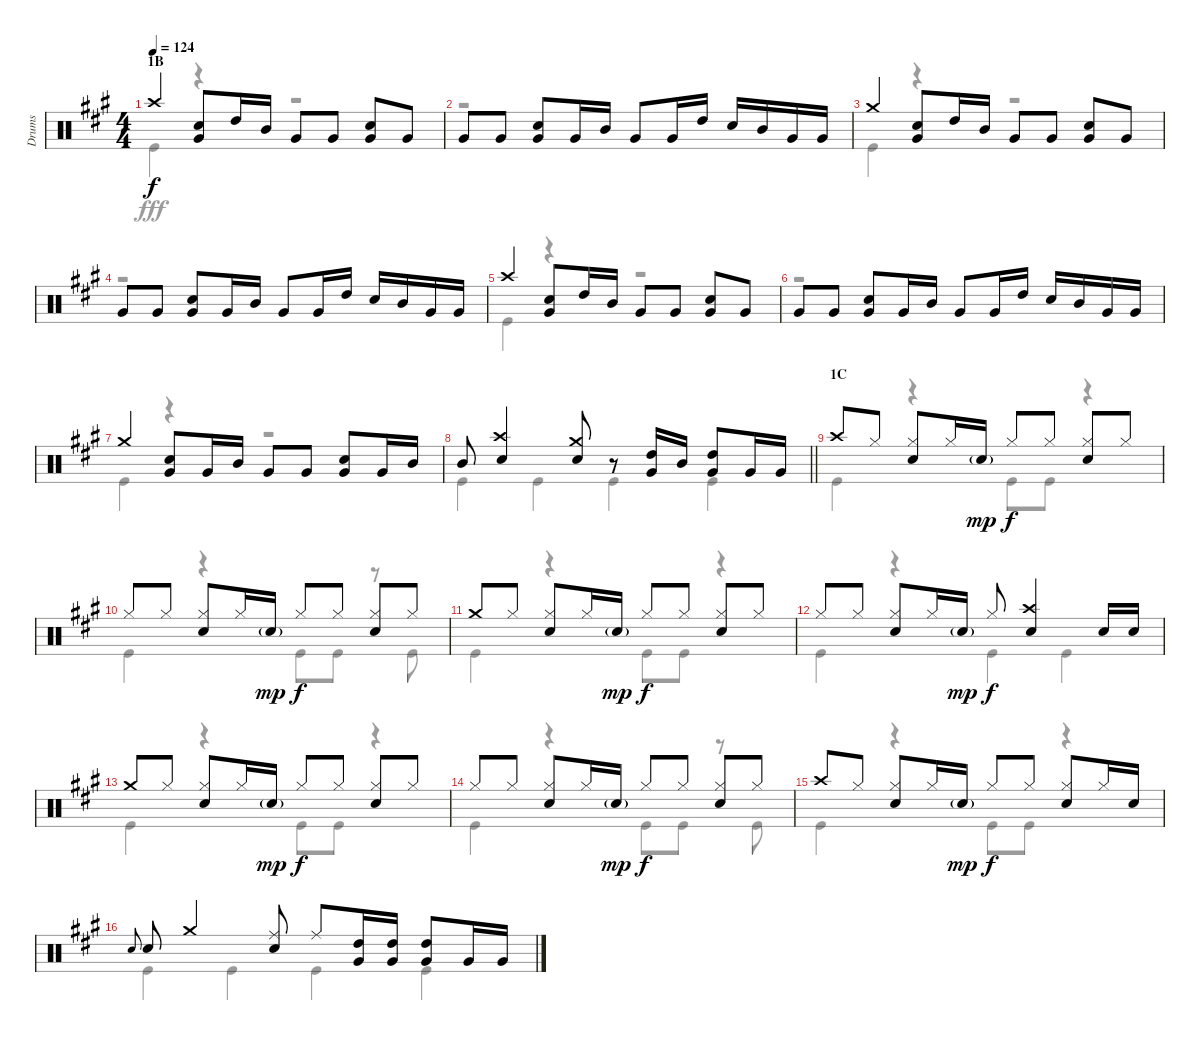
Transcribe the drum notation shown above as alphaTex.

\track ("Drums" "Drums") {instrument percussion}
\staff {score}
\articulation defaults
\voice
\ts (4 4)
\section ("" "1B")
\tempo 124
\clef neutral
\ks a "Crash high (hit)".4{dy f}
("Snare (hit) 2" "Very Low Tom (hit)").8 "High Tom (hit)".16 "Mid Tom (hit)".16 "Very Low Tom (hit)".8 "Very Low Tom (hit)".8 ("Very Low Tom (hit)" "Snare (hit) 2").8 "Very Low Tom (hit)".8 |
"Very Low Tom (hit)".8 "Very Low Tom (hit)".8 ("Snare (hit) 2" "Very Low Tom (hit)").8 "Very Low Tom (hit)".16 "Mid Tom (hit)".16 "Very Low Tom (hit)".8 "Very Low Tom (hit)".16 "High Tom (hit)".16 "Snare (hit) 2".16 "Mid Tom (hit)".16 "Very Low Tom (hit)".16 "Very Low Tom (hit)".16 |
"Crash medium (hit)".4 ("Snare (hit) 2" "Very Low Tom (hit)").8 "High Tom (hit)".16 "Mid Tom (hit)".16 "Very Low Tom (hit)".8 "Very Low Tom (hit)".8 ("Very Low Tom (hit)" "Snare (hit) 2").8 "Very Low Tom (hit)".8 |
"Very Low Tom (hit)".8 "Very Low Tom (hit)".8 ("Snare (hit) 2" "Very Low Tom (hit)").8 "Very Low Tom (hit)".16 "Mid Tom (hit)".16 "Very Low Tom (hit)".8 "Very Low Tom (hit)".16 "High Tom (hit)".16 "Snare (hit) 2".16 "Mid Tom (hit)".16 "Very Low Tom (hit)".16 "Very Low Tom (hit)".16 |
"Crash high (hit)".4 ("Snare (hit) 2" "Very Low Tom (hit)").8 "High Tom (hit)".16 "Mid Tom (hit)".16 "Very Low Tom (hit)".8 "Very Low Tom (hit)".8 ("Very Low Tom (hit)" "Snare (hit) 2").8 "Very Low Tom (hit)".8 |
"Very Low Tom (hit)".8 "Very Low Tom (hit)".8 ("Snare (hit) 2" "Very Low Tom (hit)").8 "Very Low Tom (hit)".16 "Mid Tom (hit)".16 "Very Low Tom (hit)".8 "Very Low Tom (hit)".16 "High Tom (hit)".16 "Snare (hit) 2".16 "Mid Tom (hit)".16 "Very Low Tom (hit)".16 "Very Low Tom (hit)".16 |
"Crash medium (hit)".4 ("Snare (hit) 2" "Very Low Tom (hit)").8 "Very Low Tom (hit)".16 "Mid Tom (hit)".16 "Very Low Tom (hit)".8 "Very Low Tom (hit)".8 ("Very Low Tom (hit)" "Snare (hit) 2").8 "Very Low Tom (hit)".16 "Mid Tom (hit)".16 |
\barLineRight lightlight "Mid Tom (hit)".8
("Crash high (hit)" "Snare (hit) 2").4 ("Crash medium (hit)" "Snare (hit) 2").8 r.8 ("Very Low Tom (hit)" "High Tom (hit)").16 "Mid Tom (hit)".16 ("Very Low Tom (hit)" "High Tom (hit)").8 "Very Low Tom (hit)".16 "Very Low Tom (hit)".16 |
\section ("" "1C")
"Crash high (hit)".8 "Hi-Hat (closed)".8 ("Hi-Hat (closed)" "Snare (hit) 2").8 "Hi-Hat (closed)".16 "Snare (hit) 2"{g}.16{dy mp} "Hi-Hat (closed)".8{dy f} "Hi-Hat (closed)".8 ("Hi-Hat (closed)" "Snare (hit) 2").8 "Hi-Hat (closed)".8 |
"Hi-Hat (closed)".8 "Hi-Hat (closed)".8 ("Hi-Hat (closed)" "Snare (hit) 2").8 "Hi-Hat (closed)".16 "Snare (hit) 2"{g}.16{dy mp} "Hi-Hat (closed)".8{dy f} "Hi-Hat (closed)".8 ("Hi-Hat (closed)" "Snare (hit) 2").8 "Hi-Hat (closed)".8 |
"Crash medium (hit)".8 "Hi-Hat (closed)".8 ("Hi-Hat (closed)" "Snare (hit) 2").8 "Hi-Hat (closed)".16 "Snare (hit) 2"{g}.16{dy mp} "Hi-Hat (closed)".8{dy f} "Hi-Hat (closed)".8 ("Hi-Hat (closed)" "Snare (hit) 2").8 "Hi-Hat (closed)".8 |
"Hi-Hat (closed)".8 "Hi-Hat (closed)".8 ("Hi-Hat (closed)" "Snare (hit) 2").8 "Hi-Hat (closed)".16 "Snare (hit) 2"{g}.16{dy mp} "Hi-Hat (closed)".8{dy f} ("Crash high (hit)" "Snare (hit) 2").4 "Snare (hit) 2".16 "Snare (hit) 2".16 |
"Crash medium (hit)".8 "Hi-Hat (closed)".8 ("Hi-Hat (closed)" "Snare (hit) 2").8 "Hi-Hat (closed)".16 "Snare (hit) 2"{g}.16{dy mp} "Hi-Hat (closed)".8{dy f} "Hi-Hat (closed)".8 ("Hi-Hat (closed)" "Snare (hit) 2").8 "Hi-Hat (closed)".8 |
"Hi-Hat (closed)".8 "Hi-Hat (closed)".8 ("Hi-Hat (closed)" "Snare (hit) 2").8 "Hi-Hat (closed)".16 "Snare (hit) 2"{g}.16{dy mp} "Hi-Hat (closed)".8{dy f} "Hi-Hat (closed)".8 ("Hi-Hat (closed)" "Snare (hit) 2").8 "Hi-Hat (closed)".8 |
"Crash high (hit)".8 "Hi-Hat (closed)".8 ("Hi-Hat (closed)" "Snare (hit) 2").8 "Hi-Hat (closed)".16 "Snare (hit) 2"{g}.16{dy mp} "Hi-Hat (closed)".8{dy f} "Hi-Hat (closed)".8 ("Hi-Hat (closed)" "Snare (hit) 2").8 "Hi-Hat (closed)".16 "Snare (hit) 2".16 |
"Snare (hit) 2".8{gr onbeat} "Snare (hit) 2".8 "Crash medium (hit)".4 ("Ride (middle)" "Snare (hit) 2").8 "Ride (middle)".8 ("High Tom (hit)" "Very Low Tom (hit)").16 ("High Tom (hit)" "Very Low Tom (hit)").16 ("High Tom (hit)" "Very Low Tom (hit)").8 "Very Low Tom (hit)".16 "Very Low Tom (hit)".16
\voice
\clef neutral
\ottava regular
\simile none
\ks a "Kick (hit)".4{dy fff}
r.4 r.2 |
r.1 |
"Kick (hit)".4 r.4 r.2 |
r.1 |
"Kick (hit)".4 r.4 r.2 |
r.1 |
"Kick (hit)".4 r.4 r.2 |
\barLineRight lightlight "Kick (hit)".4 "Kick (hit)".4 "Kick (hit)".4 "Kick (hit)".4
|
"Kick (hit)".4 r.4 "Kick (hit)".8 "Kick (hit)".8 r.4 |
"Kick (hit)".4 r.4 "Kick (hit)".8 "Kick (hit)".8 r.8 "Kick (hit)".8 |
"Kick (hit)".4 r.4 "Kick (hit)".8 "Kick (hit)".8 r.4 |
"Kick (hit)".4 r.4 "Kick (hit)".4 "Kick (hit)".4 |
"Kick (hit)".4 r.4 "Kick (hit)".8 "Kick (hit)".8 r.4 |
"Kick (hit)".4 r.4 "Kick (hit)".8 "Kick (hit)".8 r.8 "Kick (hit)".8 |
"Kick (hit)".4 r.4 "Kick (hit)".8 "Kick (hit)".8 r.4 |
"Kick (hit)".4 "Kick (hit)".4 "Kick (hit)".4 "Kick (hit)".4
